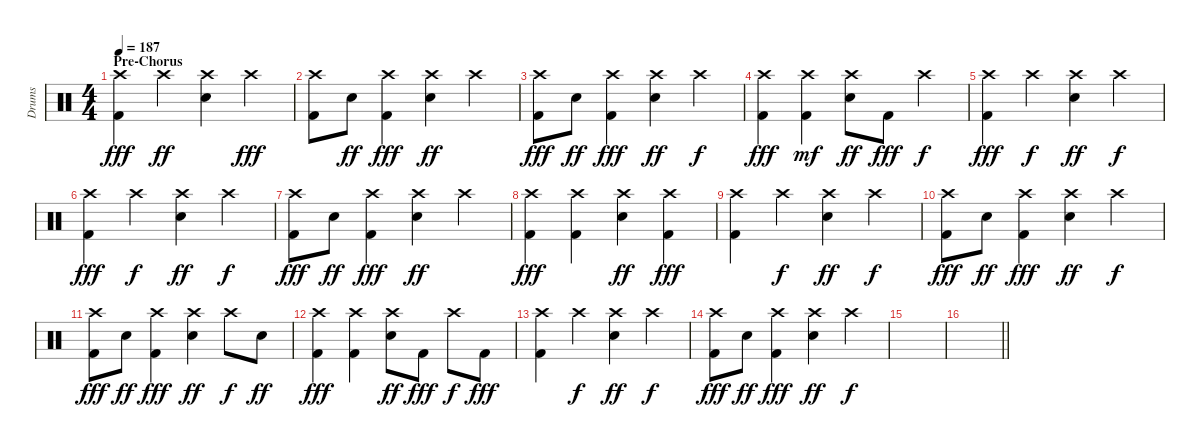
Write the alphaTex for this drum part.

\track ("Drums" "Drums") {instrument percussion}
\staff {score}
\articulation defaults
\ts (4 4)
\section ("" "Pre-Chorus")
\tempo 187
\clef neutral
\ks c
("Crash high (hit)" "Kick (hit) 2").4{dy fff volume 12} "Crash high (hit)".4{dy ff} ("Crash high (hit)" "Snare (hit) 2").4 "Crash high (hit)".4{dy fff} |
("Crash high (hit)" "Kick (hit) 2").8 "Snare (hit) 2".8{dy ff} ("Crash high (hit)" "Kick (hit) 2").4{dy fff} ("Crash high (hit)" "Snare (hit) 2").4{dy ff} "Crash high (hit)".4 |
("Crash high (hit)" "Kick (hit) 2").8{dy fff} "Snare (hit) 2".8{dy ff} ("Crash high (hit)" "Kick (hit) 2").4{dy fff} ("Crash high (hit)" "Snare (hit) 2").4{dy ff} "Crash high (hit)".4{dy f} |
("Crash high (hit)" "Kick (hit) 2").4{dy fff} ("Crash high (hit)" "Kick (hit) 2").4{dy mf} ("Crash high (hit)" "Snare (hit) 2").8{dy ff} "Kick (hit) 2".8{dy fff} "Crash high (hit)".4{dy f} |
("Crash high (hit)" "Kick (hit) 2").4{dy fff} "Crash high (hit)".4{dy f} ("Crash high (hit)" "Snare (hit) 2").4{dy ff} "Crash high (hit)".4{dy f} |
("Crash high (hit)" "Kick (hit) 2").4{dy fff} "Crash high (hit)".4{dy f} ("Crash high (hit)" "Snare (hit) 2").4{dy ff} "Crash high (hit)".4{dy f} |
("Crash high (hit)" "Kick (hit) 2").8{dy fff} "Snare (hit) 2".8{dy ff} ("Crash high (hit)" "Kick (hit) 2").4{dy fff} ("Crash high (hit)" "Snare (hit) 2").4{dy ff} "Crash high (hit)".4 |
("Crash high (hit)" "Kick (hit) 2").4{dy fff} ("Crash high (hit)" "Kick (hit) 2").4 ("Crash high (hit)" "Snare (hit) 2").4{dy ff} ("Crash high (hit)" "Kick (hit) 2").4{dy fff} |
("Crash high (hit)" "Kick (hit) 2").4 "Crash high (hit)".4{dy f} ("Crash high (hit)" "Snare (hit) 2").4{dy ff} "Crash high (hit)".4{dy f} |
("Crash high (hit)" "Kick (hit) 2").8{dy fff} "Snare (hit) 2".8{dy ff} ("Crash high (hit)" "Kick (hit) 2").4{dy fff} ("Crash high (hit)" "Snare (hit) 2").4{dy ff} "Crash high (hit)".4{dy f} |
("Crash high (hit)" "Kick (hit) 2").8{dy fff} "Snare (hit) 2".8{dy ff} ("Crash high (hit)" "Kick (hit) 2").4{dy fff} ("Crash high (hit)" "Snare (hit) 2").4{dy ff} "Crash high (hit)".8{dy f} "Snare (hit) 2".8{dy ff} |
("Crash high (hit)" "Kick (hit) 2").4{dy fff} ("Crash high (hit)" "Kick (hit) 2").4 ("Crash high (hit)" "Snare (hit) 2").8{dy ff} "Kick (hit) 2".8{dy fff} "Crash high (hit)".8{dy f} "Kick (hit) 2".8{dy fff} |
("Crash high (hit)" "Kick (hit) 2").4 "Crash high (hit)".4{dy f} ("Crash high (hit)" "Snare (hit) 2").4{dy ff} "Crash high (hit)".4{dy f} |
("Crash high (hit)" "Kick (hit) 2").8{dy fff} "Snare (hit) 2".8{dy ff} ("Crash high (hit)" "Kick (hit) 2").4{dy fff} ("Crash high (hit)" "Snare (hit) 2").4{dy ff} "Crash high (hit)".4{dy f} |
|
\barLineRight lightlight
